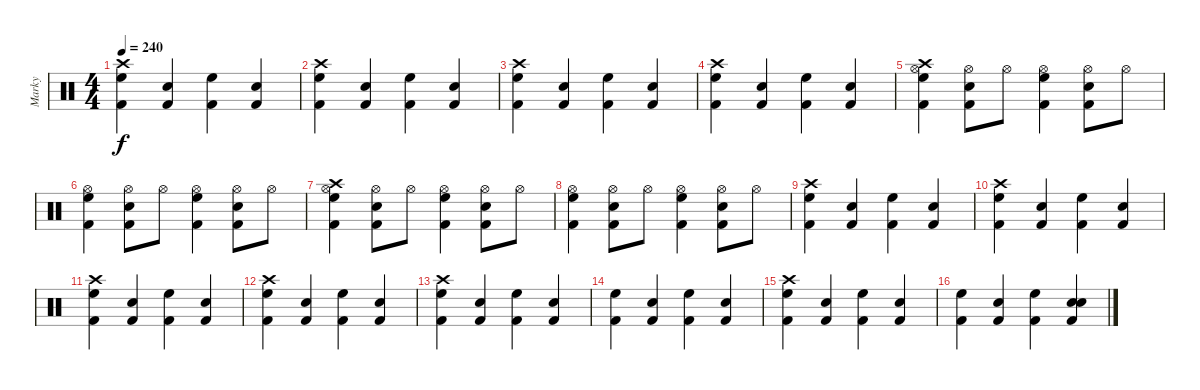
\track ("Marky" "Marky") {instrument percussion}
\staff {score}
\articulation defaults
\ts (4 4)
\tempo 240
\clef neutral
\ks c
("Crash high (hit)" "High Floor Tom (hit)" "Kick (hit) 2").4{dy f} ("Electric Snare (hit)" "Kick (hit) 2").4 ("High Floor Tom (hit)" "Kick (hit) 2").4 ("Electric Snare (hit)" "Kick (hit) 2").4 |
("Crash high (hit)" "High Floor Tom (hit)" "Kick (hit) 2").4 ("Electric Snare (hit)" "Kick (hit) 2").4 ("High Floor Tom (hit)" "Kick (hit) 2").4 ("Electric Snare (hit)" "Kick (hit) 2").4 |
("Crash high (hit)" "High Floor Tom (hit)" "Kick (hit) 2").4 ("Electric Snare (hit)" "Kick (hit) 2").4 ("High Floor Tom (hit)" "Kick (hit) 2").4 ("Electric Snare (hit)" "Kick (hit) 2").4 |
("Crash high (hit)" "High Floor Tom (hit)" "Kick (hit) 2").4 ("Electric Snare (hit)" "Kick (hit) 2").4 ("High Floor Tom (hit)" "Kick (hit) 2").4 ("Electric Snare (hit)" "Kick (hit) 2").4 |
("Crash high (hit)" "Hi-Hat (open)" "High Floor Tom (hit)" "Kick (hit) 2").4 ("Hi-Hat (open)" "Electric Snare (hit)" "Kick (hit) 2").8 "Hi-Hat (open)".8 ("Hi-Hat (open)" "High Floor Tom (hit)" "Kick (hit) 2").4 ("Hi-Hat (open)" "Electric Snare (hit)" "Kick (hit) 2").8 "Hi-Hat (open)".8 |
("Hi-Hat (open)" "High Floor Tom (hit)" "Kick (hit) 2").4 ("Hi-Hat (open)" "Electric Snare (hit)" "Kick (hit) 2").8 "Hi-Hat (open)".8 ("Hi-Hat (open)" "High Floor Tom (hit)" "Kick (hit) 2").4 ("Hi-Hat (open)" "Electric Snare (hit)" "Kick (hit) 2").8 "Hi-Hat (open)".8 |
("Crash high (hit)" "Hi-Hat (open)" "High Floor Tom (hit)" "Kick (hit) 2").4 ("Hi-Hat (open)" "Electric Snare (hit)" "Kick (hit) 2").8 "Hi-Hat (open)".8 ("Hi-Hat (open)" "High Floor Tom (hit)" "Kick (hit) 2").4 ("Hi-Hat (open)" "Electric Snare (hit)" "Kick (hit) 2").8 "Hi-Hat (open)".8 |
("Hi-Hat (open)" "High Floor Tom (hit)" "Kick (hit) 2").4 ("Hi-Hat (open)" "Electric Snare (hit)" "Kick (hit) 2").8 "Hi-Hat (open)".8 ("Hi-Hat (open)" "High Floor Tom (hit)" "Kick (hit) 2").4 ("Hi-Hat (open)" "Electric Snare (hit)" "Kick (hit) 2").8 "Hi-Hat (open)".8 |
("Crash high (hit)" "High Floor Tom (hit)" "Kick (hit) 2").4 ("Electric Snare (hit)" "Kick (hit) 2").4 ("High Floor Tom (hit)" "Kick (hit) 2").4 ("Electric Snare (hit)" "Kick (hit) 2").4 |
("Crash high (hit)" "High Floor Tom (hit)" "Kick (hit) 2").4 ("Electric Snare (hit)" "Kick (hit) 2").4 ("High Floor Tom (hit)" "Kick (hit) 2").4 ("Electric Snare (hit)" "Kick (hit) 2").4 |
("Crash high (hit)" "High Floor Tom (hit)" "Kick (hit) 2").4 ("Electric Snare (hit)" "Kick (hit) 2").4 ("High Floor Tom (hit)" "Kick (hit) 2").4 ("Electric Snare (hit)" "Kick (hit) 2").4 |
("Crash high (hit)" "High Floor Tom (hit)" "Kick (hit) 2").4 ("Electric Snare (hit)" "Kick (hit) 2").4 ("High Floor Tom (hit)" "Kick (hit) 2").4 ("Electric Snare (hit)" "Kick (hit) 2").4 |
("Crash high (hit)" "High Floor Tom (hit)" "Kick (hit) 2").4 ("Electric Snare (hit)" "Kick (hit) 2").4 ("High Floor Tom (hit)" "Kick (hit) 2").4 ("Electric Snare (hit)" "Kick (hit) 2").4 |
("High Floor Tom (hit)" "Kick (hit) 2").4 ("Electric Snare (hit)" "Kick (hit) 2").4 ("High Floor Tom (hit)" "Kick (hit) 2").4 ("Electric Snare (hit)" "Kick (hit) 2").4 |
("Crash high (hit)" "High Floor Tom (hit)" "Kick (hit) 2").4 ("Electric Snare (hit)" "Kick (hit) 2").4 ("High Floor Tom (hit)" "Kick (hit) 2").4 ("Electric Snare (hit)" "Kick (hit) 2").4 |
("High Floor Tom (hit)" "Kick (hit) 2").4 ("Electric Snare (hit)" "Kick (hit) 2").4 ("High Floor Tom (hit)" "Kick (hit) 2").4 ("Snare (hit) 2" "Electric Snare (hit)" "Kick (hit) 2").4
